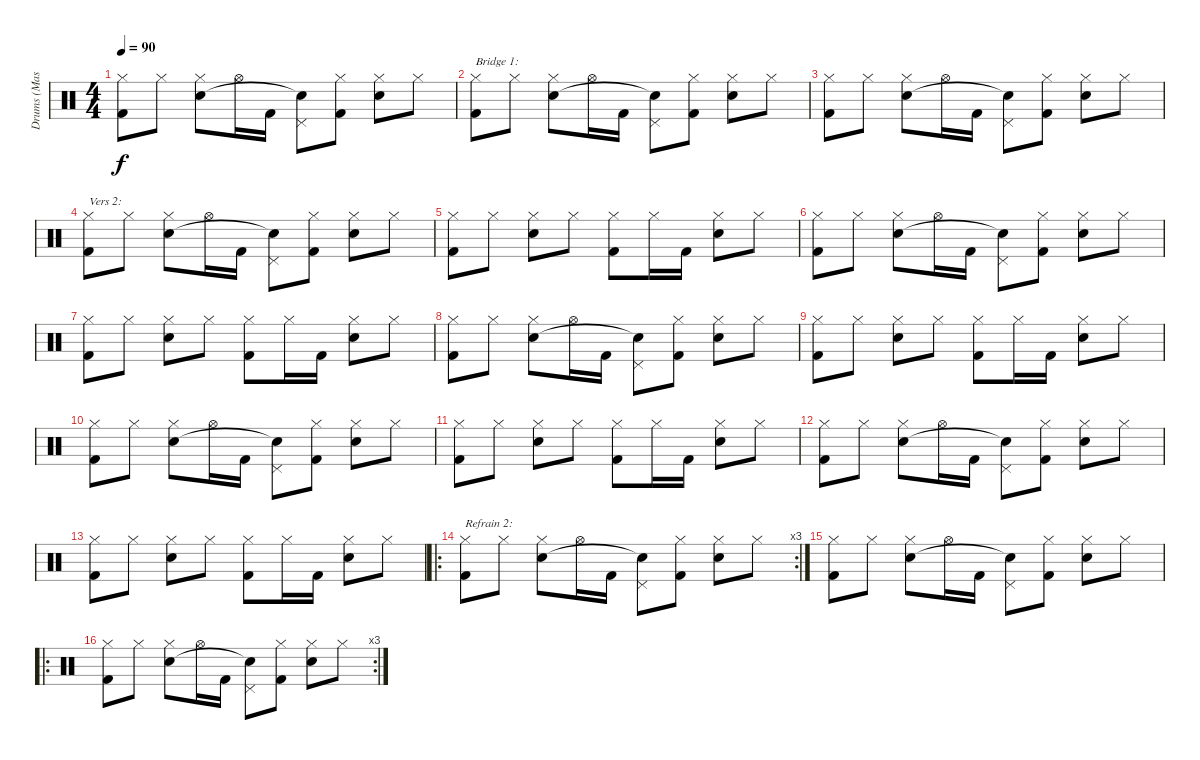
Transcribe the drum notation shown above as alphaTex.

\track ("Drums (Mason):" "Drums (Mas") {instrument percussion}
\staff {score}
\articulation defaults
\ts (4 4)
\tempo 90
\clef neutral
\ks c
("Hi-Hat (closed)" "Kick (hit) 2").8{dy f} "Hi-Hat (closed)".8 ("Hi-Hat (closed)" "Snare (hit) 2").8 "Hi-Hat (open)".16 "Kick (hit) 2".16 ("Pedal Hi-Hat (hit)" "Snare (hit)"{t}).8 ("Hi-Hat (closed)" "Kick (hit) 2").8 ("Hi-Hat (closed)" "Snare (hit) 2").8 "Hi-Hat (closed)".8 |
("Hi-Hat (closed)" "Kick (hit) 2").8{txt "Bridge 1:"} "Hi-Hat (closed)".8 ("Hi-Hat (closed)" "Snare (hit) 2").8 "Hi-Hat (open)".16 "Kick (hit) 2".16 ("Pedal Hi-Hat (hit)" "Snare (hit)"{t}).8 ("Hi-Hat (closed)" "Kick (hit) 2").8 ("Hi-Hat (closed)" "Snare (hit) 2").8 "Hi-Hat (closed)".8 |
("Hi-Hat (closed)" "Kick (hit) 2").8 "Hi-Hat (closed)".8 ("Hi-Hat (closed)" "Snare (hit) 2").8 "Hi-Hat (open)".16 "Kick (hit) 2".16 ("Pedal Hi-Hat (hit)" "Snare (hit)"{t}).8 ("Hi-Hat (closed)" "Kick (hit) 2").8 ("Hi-Hat (closed)" "Snare (hit) 2").8 "Hi-Hat (closed)".8 |
("Hi-Hat (closed)" "Kick (hit) 2").8{txt "Vers 2:"} "Hi-Hat (closed)".8 ("Hi-Hat (closed)" "Snare (hit) 2").8 "Hi-Hat (open)".16 "Kick (hit) 2".16 ("Pedal Hi-Hat (hit)" "Snare (hit)"{t}).8 ("Hi-Hat (closed)" "Kick (hit) 2").8 ("Hi-Hat (closed)" "Snare (hit) 2").8 "Hi-Hat (closed)".8 |
("Hi-Hat (closed)" "Kick (hit) 2").8 "Hi-Hat (closed)".8 ("Hi-Hat (closed)" "Snare (hit) 2").8 "Hi-Hat (closed)".8 ("Hi-Hat (closed)" "Kick (hit) 2").8 "Hi-Hat (closed)".16 "Kick (hit) 2".16 ("Hi-Hat (closed)" "Snare (hit) 2").8 "Hi-Hat (closed)".8 |
("Hi-Hat (closed)" "Kick (hit) 2").8 "Hi-Hat (closed)".8 ("Hi-Hat (closed)" "Snare (hit) 2").8 "Hi-Hat (open)".16 "Kick (hit) 2".16 ("Pedal Hi-Hat (hit)" "Snare (hit)"{t}).8 ("Hi-Hat (closed)" "Kick (hit) 2").8 ("Hi-Hat (closed)" "Snare (hit) 2").8 "Hi-Hat (closed)".8 |
("Hi-Hat (closed)" "Kick (hit) 2").8 "Hi-Hat (closed)".8 ("Hi-Hat (closed)" "Snare (hit) 2").8 "Hi-Hat (closed)".8 ("Hi-Hat (closed)" "Kick (hit) 2").8 "Hi-Hat (closed)".16 "Kick (hit) 2".16 ("Hi-Hat (closed)" "Snare (hit) 2").8 "Hi-Hat (closed)".8 |
("Hi-Hat (closed)" "Kick (hit) 2").8 "Hi-Hat (closed)".8 ("Hi-Hat (closed)" "Snare (hit) 2").8 "Hi-Hat (open)".16 "Kick (hit) 2".16 ("Pedal Hi-Hat (hit)" "Snare (hit)"{t}).8 ("Hi-Hat (closed)" "Kick (hit) 2").8 ("Hi-Hat (closed)" "Snare (hit) 2").8 "Hi-Hat (closed)".8 |
("Hi-Hat (closed)" "Kick (hit) 2").8 "Hi-Hat (closed)".8 ("Hi-Hat (closed)" "Snare (hit) 2").8 "Hi-Hat (closed)".8 ("Hi-Hat (closed)" "Kick (hit) 2").8 "Hi-Hat (closed)".16 "Kick (hit) 2".16 ("Hi-Hat (closed)" "Snare (hit) 2").8 "Hi-Hat (closed)".8 |
("Hi-Hat (closed)" "Kick (hit) 2").8 "Hi-Hat (closed)".8 ("Hi-Hat (closed)" "Snare (hit) 2").8 "Hi-Hat (open)".16 "Kick (hit) 2".16 ("Pedal Hi-Hat (hit)" "Snare (hit)"{t}).8 ("Hi-Hat (closed)" "Kick (hit) 2").8 ("Hi-Hat (closed)" "Snare (hit) 2").8 "Hi-Hat (closed)".8 |
("Hi-Hat (closed)" "Kick (hit) 2").8 "Hi-Hat (closed)".8 ("Hi-Hat (closed)" "Snare (hit) 2").8 "Hi-Hat (closed)".8 ("Hi-Hat (closed)" "Kick (hit) 2").8 "Hi-Hat (closed)".16 "Kick (hit) 2".16 ("Hi-Hat (closed)" "Snare (hit) 2").8 "Hi-Hat (closed)".8 |
("Hi-Hat (closed)" "Kick (hit) 2").8 "Hi-Hat (closed)".8 ("Hi-Hat (closed)" "Snare (hit) 2").8 "Hi-Hat (open)".16 "Kick (hit) 2".16 ("Pedal Hi-Hat (hit)" "Snare (hit)"{t}).8 ("Hi-Hat (closed)" "Kick (hit) 2").8 ("Hi-Hat (closed)" "Snare (hit) 2").8 "Hi-Hat (closed)".8 |
("Hi-Hat (closed)" "Kick (hit) 2").8 "Hi-Hat (closed)".8 ("Hi-Hat (closed)" "Snare (hit) 2").8 "Hi-Hat (closed)".8 ("Hi-Hat (closed)" "Kick (hit) 2").8 "Hi-Hat (closed)".16 "Kick (hit) 2".16 ("Hi-Hat (closed)" "Snare (hit) 2").8 "Hi-Hat (closed)".8 |
\ro
\rc 3
("Hi-Hat (closed)" "Kick (hit) 2").8{txt "Refrain 2:"} "Hi-Hat (closed)".8 ("Hi-Hat (closed)" "Snare (hit) 2").8 "Hi-Hat (open)".16 "Kick (hit) 2".16 ("Pedal Hi-Hat (hit)" "Snare (hit)"{t}).8 ("Hi-Hat (closed)" "Kick (hit) 2").8 ("Hi-Hat (closed)" "Snare (hit) 2").8 "Hi-Hat (closed)".8 |
("Hi-Hat (closed)" "Kick (hit) 2").8 "Hi-Hat (closed)".8 ("Hi-Hat (closed)" "Snare (hit) 2").8 "Hi-Hat (open)".16 "Kick (hit) 2".16 ("Pedal Hi-Hat (hit)" "Snare (hit)"{t}).8 ("Hi-Hat (closed)" "Kick (hit) 2").8 ("Hi-Hat (closed)" "Snare (hit) 2").8 "Hi-Hat (closed)".8 |
\ro
\rc 3
("Hi-Hat (closed)" "Kick (hit) 2").8 "Hi-Hat (closed)".8 ("Hi-Hat (closed)" "Snare (hit) 2").8 "Hi-Hat (open)".16 "Kick (hit) 2".16 ("Pedal Hi-Hat (hit)" "Snare (hit)"{t}).8 ("Hi-Hat (closed)" "Kick (hit) 2").8 ("Hi-Hat (closed)" "Snare (hit) 2").8 "Hi-Hat (closed)".8
